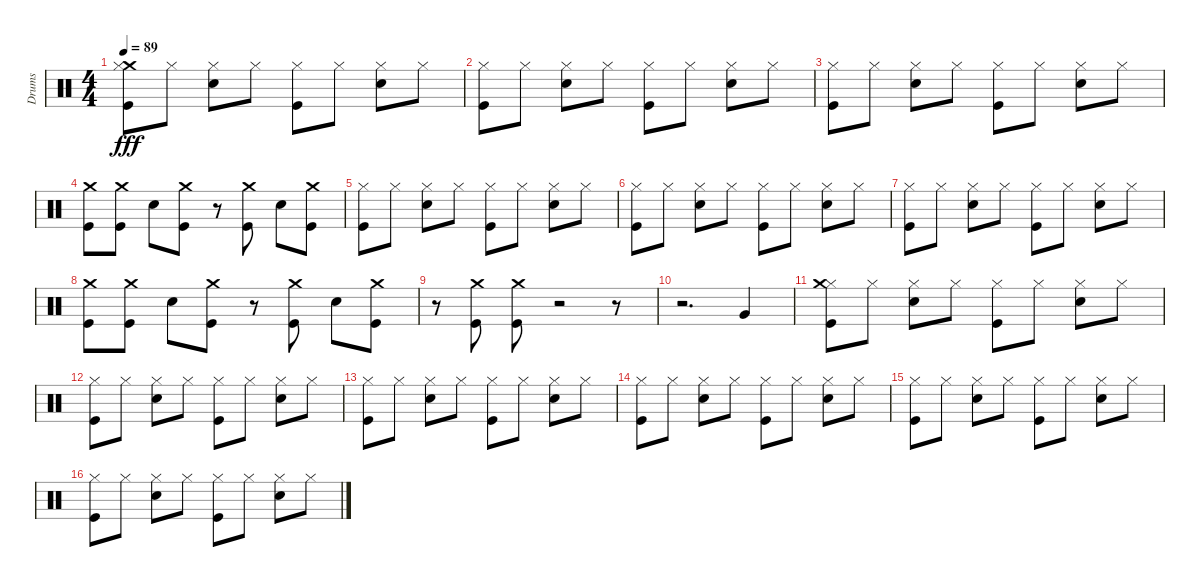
\track ("Drums" "Drums") {instrument percussion}
\staff {score}
\articulation defaults
\ts (4 4)
\tempo 89
\clef neutral
\ks c
("Crash medium (hit)" "Hi-Hat (closed)" "Kick (hit)").8{dy fff} "Hi-Hat (closed)".8 ("Snare (hit) 2" "Hi-Hat (closed)").8 "Hi-Hat (closed)".8 ("Kick (hit)" "Hi-Hat (closed)").8 "Hi-Hat (closed)".8 ("Snare (hit) 2" "Hi-Hat (closed)").8 "Hi-Hat (closed)".8 |
("Kick (hit)" "Hi-Hat (closed)").8 "Hi-Hat (closed)".8 ("Snare (hit) 2" "Hi-Hat (closed)").8 "Hi-Hat (closed)".8 ("Kick (hit)" "Hi-Hat (closed)").8 "Hi-Hat (closed)".8 ("Snare (hit) 2" "Hi-Hat (closed)").8 "Hi-Hat (closed)".8 |
("Kick (hit)" "Hi-Hat (closed)").8 "Hi-Hat (closed)".8 ("Snare (hit) 2" "Hi-Hat (closed)").8 "Hi-Hat (closed)".8 ("Kick (hit)" "Hi-Hat (closed)").8 "Hi-Hat (closed)".8 ("Snare (hit) 2" "Hi-Hat (closed)").8 "Hi-Hat (closed)".8 |
("Crash medium (hit)" "Kick (hit)").8 ("Crash medium (hit)" "Kick (hit)").8 "Snare (hit) 2".8 ("Crash medium (hit)" "Kick (hit)").8 r.8 ("Crash medium (hit)" "Kick (hit)").8 "Snare (hit) 2".8 ("Crash medium (hit)" "Kick (hit)").8 |
("Kick (hit)" "Hi-Hat (closed)").8 "Hi-Hat (closed)".8 ("Snare (hit) 2" "Hi-Hat (closed)").8 "Hi-Hat (closed)".8 ("Kick (hit)" "Hi-Hat (closed)").8 "Hi-Hat (closed)".8 ("Snare (hit) 2" "Hi-Hat (closed)").8 "Hi-Hat (closed)".8 |
("Kick (hit)" "Hi-Hat (closed)").8 "Hi-Hat (closed)".8 ("Snare (hit) 2" "Hi-Hat (closed)").8 "Hi-Hat (closed)".8 ("Kick (hit)" "Hi-Hat (closed)").8 "Hi-Hat (closed)".8 ("Snare (hit) 2" "Hi-Hat (closed)").8 "Hi-Hat (closed)".8 |
("Kick (hit)" "Hi-Hat (closed)").8 "Hi-Hat (closed)".8 ("Snare (hit) 2" "Hi-Hat (closed)").8 "Hi-Hat (closed)".8 ("Kick (hit)" "Hi-Hat (closed)").8 "Hi-Hat (closed)".8 ("Snare (hit) 2" "Hi-Hat (closed)").8 "Hi-Hat (closed)".8 |
("Crash medium (hit)" "Kick (hit)").8 ("Crash medium (hit)" "Kick (hit)").8 "Snare (hit) 2".8 ("Crash medium (hit)" "Kick (hit)").8 r.8 ("Crash medium (hit)" "Kick (hit)").8 "Snare (hit) 2".8 ("Crash medium (hit)" "Kick (hit)").8 |
r.8 ("Crash medium (hit)" "Kick (hit)").8 ("Crash medium (hit)" "Kick (hit)").8 r.2 r.8 |
r.2{d} "Very Low Tom (hit)".4 |
("Kick (hit)" "Hi-Hat (closed)" "Crash medium (hit)").8 "Hi-Hat (closed)".8 ("Snare (hit) 2" "Hi-Hat (closed)").8 "Hi-Hat (closed)".8 ("Kick (hit)" "Hi-Hat (closed)").8 "Hi-Hat (closed)".8 ("Snare (hit) 2" "Hi-Hat (closed)").8 "Hi-Hat (closed)".8 |
("Kick (hit)" "Hi-Hat (closed)").8 "Hi-Hat (closed)".8 ("Snare (hit) 2" "Hi-Hat (closed)").8 "Hi-Hat (closed)".8 ("Kick (hit)" "Hi-Hat (closed)").8 "Hi-Hat (closed)".8 ("Snare (hit) 2" "Hi-Hat (closed)").8 "Hi-Hat (closed)".8 |
("Kick (hit)" "Hi-Hat (closed)").8 "Hi-Hat (closed)".8 ("Snare (hit) 2" "Hi-Hat (closed)").8 "Hi-Hat (closed)".8 ("Kick (hit)" "Hi-Hat (closed)").8 "Hi-Hat (closed)".8 ("Snare (hit) 2" "Hi-Hat (closed)").8 "Hi-Hat (closed)".8 |
("Kick (hit)" "Hi-Hat (closed)").8 "Hi-Hat (closed)".8 ("Snare (hit) 2" "Hi-Hat (closed)").8 "Hi-Hat (closed)".8 ("Kick (hit)" "Hi-Hat (closed)").8 "Hi-Hat (closed)".8 ("Snare (hit) 2" "Hi-Hat (closed)").8 "Hi-Hat (closed)".8 |
("Kick (hit)" "Hi-Hat (closed)").8 "Hi-Hat (closed)".8 ("Snare (hit) 2" "Hi-Hat (closed)").8 "Hi-Hat (closed)".8 ("Kick (hit)" "Hi-Hat (closed)").8 "Hi-Hat (closed)".8 ("Snare (hit) 2" "Hi-Hat (closed)").8 "Hi-Hat (closed)".8 |
("Kick (hit)" "Hi-Hat (closed)").8 "Hi-Hat (closed)".8 ("Snare (hit) 2" "Hi-Hat (closed)").8 "Hi-Hat (closed)".8 ("Kick (hit)" "Hi-Hat (closed)").8 "Hi-Hat (closed)".8 ("Snare (hit) 2" "Hi-Hat (closed)").8 "Hi-Hat (closed)".8
